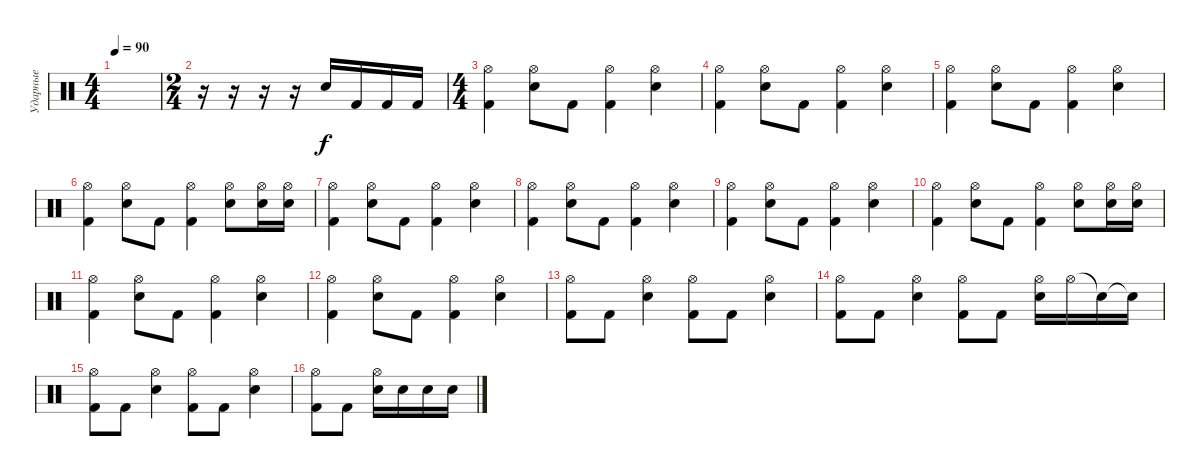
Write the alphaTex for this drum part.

\track ("Ударные" "Ударные") {instrument percussion}
\staff {score}
\articulation defaults
\ts (4 4)
\tempo 90
\clef neutral
\ks c
|
\ts (2 4)
r.16 r.16 r.16 r.16 "Snare (hit) 2".16 "Kick (hit) 2".16 "Kick (hit) 2".16 "Kick (hit) 2".16 |
\ts (4 4)
("Kick (hit) 2" "Hi-Hat (open)").4 ("Snare (hit) 2" "Hi-Hat (open)").8 "Kick (hit) 2".8 ("Kick (hit) 2" "Hi-Hat (open)").4 ("Snare (hit) 2" "Hi-Hat (open)").4 |
("Kick (hit) 2" "Hi-Hat (open)").4 ("Snare (hit) 2" "Hi-Hat (open)").8 "Kick (hit) 2".8 ("Kick (hit) 2" "Hi-Hat (open)").4 ("Snare (hit) 2" "Hi-Hat (open)").4 |
("Kick (hit) 2" "Hi-Hat (open)").4 ("Snare (hit) 2" "Hi-Hat (open)").8 "Kick (hit) 2".8 ("Kick (hit) 2" "Hi-Hat (open)").4 ("Snare (hit) 2" "Hi-Hat (open)").4 |
("Kick (hit) 2" "Hi-Hat (open)").4 ("Snare (hit) 2" "Hi-Hat (open)").8 "Kick (hit) 2".8 ("Kick (hit) 2" "Hi-Hat (open)").4 ("Snare (hit) 2" "Hi-Hat (open)").8 ("Snare (hit) 2" "Hi-Hat (open)").16 ("Snare (hit) 2" "Hi-Hat (open)").16 |
("Kick (hit) 2" "Hi-Hat (open)").4 ("Snare (hit) 2" "Hi-Hat (open)").8 "Kick (hit) 2".8 ("Kick (hit) 2" "Hi-Hat (open)").4 ("Snare (hit) 2" "Hi-Hat (open)").4 |
("Kick (hit) 2" "Hi-Hat (open)").4 ("Snare (hit) 2" "Hi-Hat (open)").8 "Kick (hit) 2".8 ("Kick (hit) 2" "Hi-Hat (open)").4 ("Snare (hit) 2" "Hi-Hat (open)").4 |
("Kick (hit) 2" "Hi-Hat (open)").4 ("Snare (hit) 2" "Hi-Hat (open)").8 "Kick (hit) 2".8 ("Kick (hit) 2" "Hi-Hat (open)").4 ("Snare (hit) 2" "Hi-Hat (open)").4 |
("Kick (hit) 2" "Hi-Hat (open)").4 ("Snare (hit) 2" "Hi-Hat (open)").8 "Kick (hit) 2".8 ("Kick (hit) 2" "Hi-Hat (open)").4 ("Snare (hit) 2" "Hi-Hat (open)").8 ("Snare (hit) 2" "Hi-Hat (open)").16 ("Snare (hit) 2" "Hi-Hat (open)").16 |
("Kick (hit) 2" "Hi-Hat (open)").4 ("Snare (hit) 2" "Hi-Hat (open)").8 "Kick (hit) 2".8 ("Kick (hit) 2" "Hi-Hat (open)").4 ("Snare (hit) 2" "Hi-Hat (open)").4 |
("Kick (hit) 2" "Hi-Hat (open)").4 ("Snare (hit) 2" "Hi-Hat (open)").8 "Kick (hit) 2".8 ("Kick (hit) 2" "Hi-Hat (open)").4 ("Snare (hit) 2" "Hi-Hat (open)").4 |
("Kick (hit) 2" "Hi-Hat (open)").8 "Kick (hit) 2".8 ("Snare (hit) 2" "Hi-Hat (open)").4 ("Kick (hit) 2" "Hi-Hat (open)").8 "Kick (hit) 2".8 ("Snare (hit) 2" "Hi-Hat (open)").4 |
("Kick (hit) 2" "Hi-Hat (open)").8 "Kick (hit) 2".8 ("Snare (hit) 2" "Hi-Hat (open)").4 ("Kick (hit) 2" "Hi-Hat (open)").8 "Kick (hit) 2".8 ("Snare (hit) 2" "Hi-Hat (open)").16 "Hi-Hat (open)".16 "Snare (hit)"{t}.16 "Snare (hit)"{t}.16 |
("Kick (hit) 2" "Hi-Hat (open)").8 "Kick (hit) 2".8 ("Snare (hit) 2" "Hi-Hat (open)").4 ("Kick (hit) 2" "Hi-Hat (open)").8 "Kick (hit) 2".8 ("Snare (hit) 2" "Hi-Hat (open)").4 |
("Kick (hit) 2" "Hi-Hat (open)").8 "Kick (hit) 2".8 ("Snare (hit) 2" "Hi-Hat (open)").16 "Snare (hit) 2".16 "Snare (hit) 2".16 "Snare (hit) 2".16
